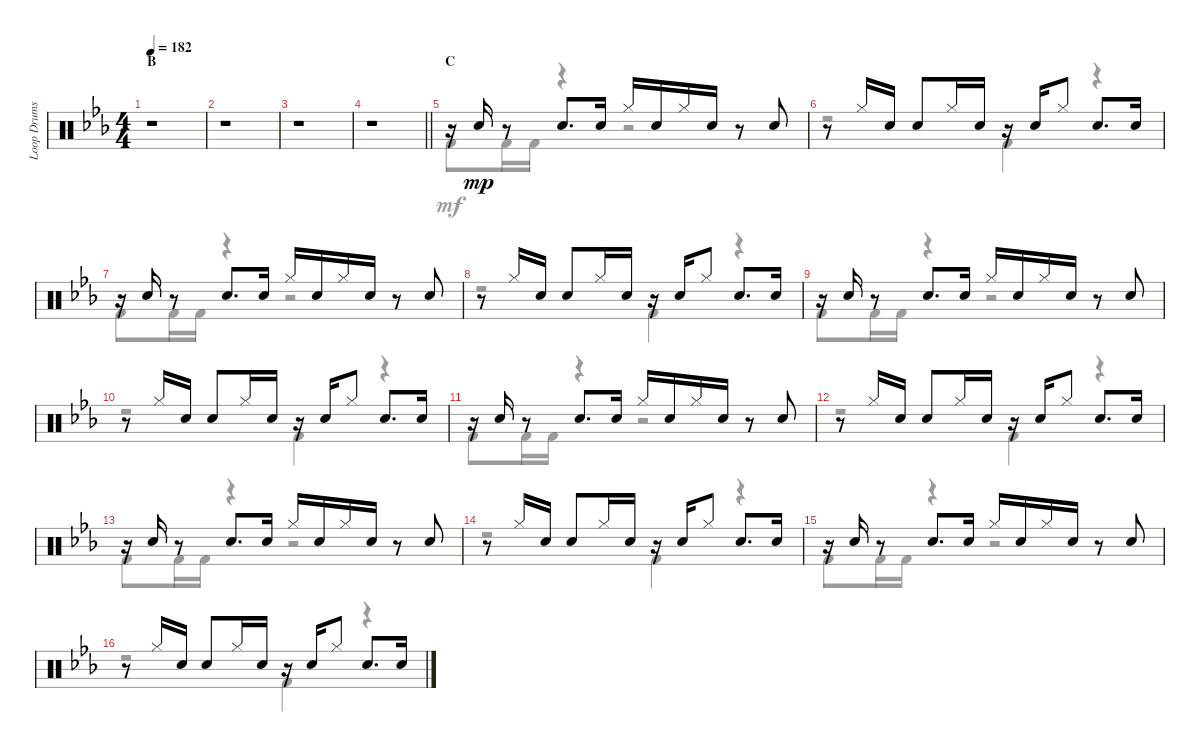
\track ("Loop Drums" "Loop Drums") {instrument percussion}
\staff {score}
\articulation defaults
\voice
\ts (4 4)
\section ("" "B")
\tempo 182
\clef neutral
\ks eb
r.1{dy mp} |
r.1 |
r.1 |
\barLineRight lightlight
r.1 |
\section ("" "C")
r.16 "Electric Snare (hit)".16 r.8 "Electric Snare (hit)".8{d} "Electric Snare (hit)".16 "Hi-Hat (closed)".16 "Electric Snare (hit)".16 "Hi-Hat (closed)".16 "Electric Snare (hit)".16 r.8 "Electric Snare (hit)".8 |
r.8 "Hi-Hat (closed)".16 "Electric Snare (hit)".16 "Electric Snare (hit)".8 "Hi-Hat (closed)".16 "Electric Snare (hit)".16 r.16 "Electric Snare (hit)".16 "Hi-Hat (closed)".8 "Electric Snare (hit)".8{d} "Electric Snare (hit)".16 |
r.16 "Electric Snare (hit)".16 r.8 "Electric Snare (hit)".8{d} "Electric Snare (hit)".16 "Hi-Hat (closed)".16 "Electric Snare (hit)".16 "Hi-Hat (closed)".16 "Electric Snare (hit)".16 r.8 "Electric Snare (hit)".8 |
r.8 "Hi-Hat (closed)".16 "Electric Snare (hit)".16 "Electric Snare (hit)".8 "Hi-Hat (closed)".16 "Electric Snare (hit)".16 r.16 "Electric Snare (hit)".16 "Hi-Hat (closed)".8 "Electric Snare (hit)".8{d} "Electric Snare (hit)".16 |
r.16 "Electric Snare (hit)".16 r.8 "Electric Snare (hit)".8{d} "Electric Snare (hit)".16 "Hi-Hat (closed)".16 "Electric Snare (hit)".16 "Hi-Hat (closed)".16 "Electric Snare (hit)".16 r.8 "Electric Snare (hit)".8 |
r.8 "Hi-Hat (closed)".16 "Electric Snare (hit)".16 "Electric Snare (hit)".8 "Hi-Hat (closed)".16 "Electric Snare (hit)".16 r.16 "Electric Snare (hit)".16 "Hi-Hat (closed)".8 "Electric Snare (hit)".8{d} "Electric Snare (hit)".16 |
r.16 "Electric Snare (hit)".16 r.8 "Electric Snare (hit)".8{d} "Electric Snare (hit)".16 "Hi-Hat (closed)".16 "Electric Snare (hit)".16 "Hi-Hat (closed)".16 "Electric Snare (hit)".16 r.8 "Electric Snare (hit)".8 |
r.8 "Hi-Hat (closed)".16 "Electric Snare (hit)".16 "Electric Snare (hit)".8 "Hi-Hat (closed)".16 "Electric Snare (hit)".16 r.16 "Electric Snare (hit)".16 "Hi-Hat (closed)".8 "Electric Snare (hit)".8{d} "Electric Snare (hit)".16 |
r.16 "Electric Snare (hit)".16 r.8 "Electric Snare (hit)".8{d} "Electric Snare (hit)".16 "Hi-Hat (closed)".16 "Electric Snare (hit)".16 "Hi-Hat (closed)".16 "Electric Snare (hit)".16 r.8 "Electric Snare (hit)".8 |
r.8 "Hi-Hat (closed)".16 "Electric Snare (hit)".16 "Electric Snare (hit)".8 "Hi-Hat (closed)".16 "Electric Snare (hit)".16 r.16 "Electric Snare (hit)".16 "Hi-Hat (closed)".8 "Electric Snare (hit)".8{d} "Electric Snare (hit)".16 |
r.16 "Electric Snare (hit)".16 r.8 "Electric Snare (hit)".8{d} "Electric Snare (hit)".16 "Hi-Hat (closed)".16 "Electric Snare (hit)".16 "Hi-Hat (closed)".16 "Electric Snare (hit)".16 r.8 "Electric Snare (hit)".8 |
r.8 "Hi-Hat (closed)".16 "Electric Snare (hit)".16 "Electric Snare (hit)".8 "Hi-Hat (closed)".16 "Electric Snare (hit)".16 r.16 "Electric Snare (hit)".16 "Hi-Hat (closed)".8 "Electric Snare (hit)".8{d} "Electric Snare (hit)".16
\voice
\clef neutral
\ottava regular
\simile none
\ks eb
r.1{dy mf} |
r.1 |
r.1 |
\barLineRight lightlight
r.1 |
"Kick (hit) 2".8 "Kick (hit) 2".16 "Kick (hit) 2".16 r.4 r.2 |
r.2 "Kick (hit) 2".4 r.4 |
"Kick (hit) 2".8 "Kick (hit) 2".16 "Kick (hit) 2".16 r.4 r.2 |
r.2 "Kick (hit) 2".4 r.4 |
"Kick (hit) 2".8 "Kick (hit) 2".16 "Kick (hit) 2".16 r.4 r.2 |
r.2 "Kick (hit) 2".4 r.4 |
"Kick (hit) 2".8 "Kick (hit) 2".16 "Kick (hit) 2".16 r.4 r.2 |
r.2 "Kick (hit) 2".4 r.4 |
"Kick (hit) 2".8 "Kick (hit) 2".16 "Kick (hit) 2".16 r.4 r.2 |
r.2 "Kick (hit) 2".4 r.4 |
"Kick (hit) 2".8 "Kick (hit) 2".16 "Kick (hit) 2".16 r.4 r.2 |
r.2 "Kick (hit) 2".4 r.4
